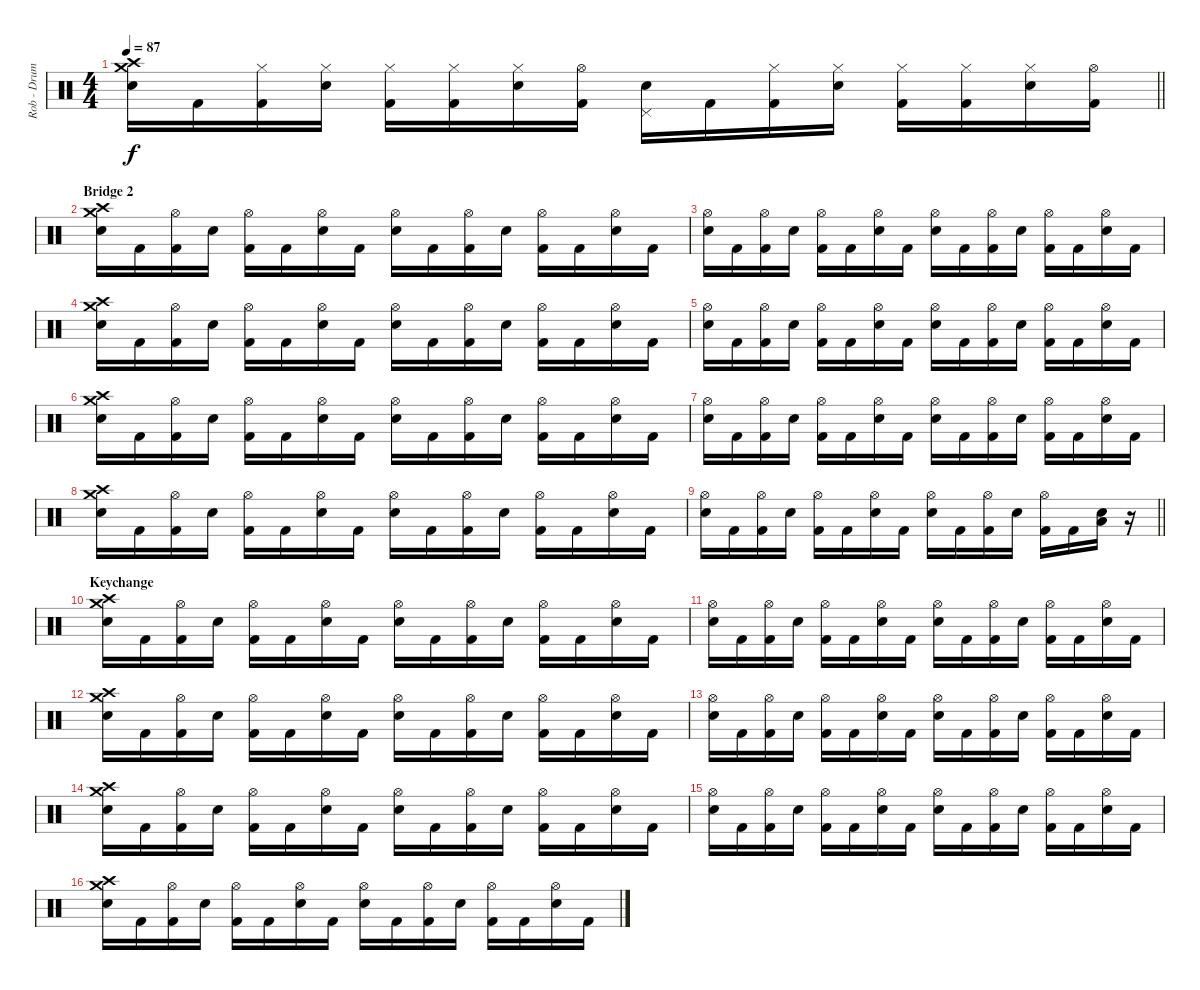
\track ("Rob - Drums" "Rob - Drum") {instrument percussion}
\staff {score}
\articulation defaults
\ts (4 4)
\tempo 87
\clef neutral
\barLineRight lightlight
\ks c
("Crash medium (hit)" "Crash high (hit)" "Electric Snare (hit)").16{dy f} "Kick (hit) 2".16 ("Hi-Hat (closed)" "Kick (hit) 2").16 ("Hi-Hat (closed)" "Electric Snare (hit)").16 ("Hi-Hat (closed)" "Kick (hit) 2").16 ("Hi-Hat (closed)" "Kick (hit) 2").16 ("Hi-Hat (closed)" "Electric Snare (hit)").16 ("Hi-Hat (open)" "Kick (hit) 2").16 ("Pedal Hi-Hat (hit)" "Electric Snare (hit)").16 "Kick (hit) 2".16 ("Hi-Hat (closed)" "Kick (hit) 2").16 ("Hi-Hat (closed)" "Electric Snare (hit)").16 ("Hi-Hat (closed)" "Kick (hit) 2").16 ("Hi-Hat (closed)" "Kick (hit) 2").16 ("Hi-Hat (closed)" "Electric Snare (hit)").16 ("Hi-Hat (open)" "Kick (hit) 2").16 |
\section ("" "Bridge 2")
("Crash medium (hit)" "Crash high (hit)" "Electric Snare (hit)").16 "Kick (hit) 2".16 ("Hi-Hat (open)" "Kick (hit) 2").16 "Electric Snare (hit)".16 ("Hi-Hat (open)" "Kick (hit) 2").16 "Kick (hit) 2".16 ("Hi-Hat (open)" "Electric Snare (hit)").16 "Kick (hit) 2".16 ("Hi-Hat (open)" "Electric Snare (hit)").16 "Kick (hit) 2".16 ("Hi-Hat (open)" "Kick (hit) 2").16 "Electric Snare (hit)".16 ("Hi-Hat (open)" "Kick (hit) 2").16 "Kick (hit) 2".16 ("Hi-Hat (open)" "Electric Snare (hit)").16 "Kick (hit) 2".16 |
("Hi-Hat (open)" "Electric Snare (hit)").16 "Kick (hit) 2".16 ("Hi-Hat (open)" "Kick (hit) 2").16 "Electric Snare (hit)".16 ("Hi-Hat (open)" "Kick (hit) 2").16 "Kick (hit) 2".16 ("Hi-Hat (open)" "Electric Snare (hit)").16 "Kick (hit) 2".16 ("Hi-Hat (open)" "Electric Snare (hit)").16 "Kick (hit) 2".16 ("Hi-Hat (open)" "Kick (hit) 2").16 "Electric Snare (hit)".16 ("Hi-Hat (open)" "Kick (hit) 2").16 "Kick (hit) 2".16 ("Hi-Hat (open)" "Electric Snare (hit)").16 "Kick (hit) 2".16 |
("Crash medium (hit)" "Crash high (hit)" "Electric Snare (hit)").16 "Kick (hit) 2".16 ("Hi-Hat (open)" "Kick (hit) 2").16 "Electric Snare (hit)".16 ("Hi-Hat (open)" "Kick (hit) 2").16 "Kick (hit) 2".16 ("Hi-Hat (open)" "Electric Snare (hit)").16 "Kick (hit) 2".16 ("Hi-Hat (open)" "Electric Snare (hit)").16 "Kick (hit) 2".16 ("Hi-Hat (open)" "Kick (hit) 2").16 "Electric Snare (hit)".16 ("Hi-Hat (open)" "Kick (hit) 2").16 "Kick (hit) 2".16 ("Hi-Hat (open)" "Electric Snare (hit)").16 "Kick (hit) 2".16 |
("Hi-Hat (open)" "Electric Snare (hit)").16 "Kick (hit) 2".16 ("Hi-Hat (open)" "Kick (hit) 2").16 "Electric Snare (hit)".16 ("Hi-Hat (open)" "Kick (hit) 2").16 "Kick (hit) 2".16 ("Hi-Hat (open)" "Electric Snare (hit)").16 "Kick (hit) 2".16 ("Hi-Hat (open)" "Electric Snare (hit)").16 "Kick (hit) 2".16 ("Hi-Hat (open)" "Kick (hit) 2").16 "Electric Snare (hit)".16 ("Hi-Hat (open)" "Kick (hit) 2").16 "Kick (hit) 2".16 ("Hi-Hat (open)" "Electric Snare (hit)").16 "Kick (hit) 2".16 |
("Crash medium (hit)" "Crash high (hit)" "Electric Snare (hit)").16 "Kick (hit) 2".16 ("Hi-Hat (open)" "Kick (hit) 2").16 "Electric Snare (hit)".16 ("Hi-Hat (open)" "Kick (hit) 2").16 "Kick (hit) 2".16 ("Hi-Hat (open)" "Electric Snare (hit)").16 "Kick (hit) 2".16 ("Hi-Hat (open)" "Electric Snare (hit)").16 "Kick (hit) 2".16 ("Hi-Hat (open)" "Kick (hit) 2").16 "Electric Snare (hit)".16 ("Hi-Hat (open)" "Kick (hit) 2").16 "Kick (hit) 2".16 ("Hi-Hat (open)" "Electric Snare (hit)").16 "Kick (hit) 2".16 |
("Hi-Hat (open)" "Electric Snare (hit)").16 "Kick (hit) 2".16 ("Hi-Hat (open)" "Kick (hit) 2").16 "Electric Snare (hit)".16 ("Hi-Hat (open)" "Kick (hit) 2").16 "Kick (hit) 2".16 ("Hi-Hat (open)" "Electric Snare (hit)").16 "Kick (hit) 2".16 ("Hi-Hat (open)" "Electric Snare (hit)").16 "Kick (hit) 2".16 ("Hi-Hat (open)" "Kick (hit) 2").16 "Electric Snare (hit)".16 ("Hi-Hat (open)" "Kick (hit) 2").16 "Kick (hit) 2".16 ("Hi-Hat (open)" "Electric Snare (hit)").16 "Kick (hit) 2".16 |
("Crash medium (hit)" "Crash high (hit)" "Electric Snare (hit)").16 "Kick (hit) 2".16 ("Hi-Hat (open)" "Kick (hit) 2").16 "Electric Snare (hit)".16 ("Hi-Hat (open)" "Kick (hit) 2").16 "Kick (hit) 2".16 ("Hi-Hat (open)" "Electric Snare (hit)").16 "Kick (hit) 2".16 ("Hi-Hat (open)" "Electric Snare (hit)").16 "Kick (hit) 2".16 ("Hi-Hat (open)" "Kick (hit) 2").16 "Electric Snare (hit)".16 ("Hi-Hat (open)" "Kick (hit) 2").16 "Kick (hit) 2".16 ("Hi-Hat (open)" "Electric Snare (hit)").16 "Kick (hit) 2".16 |
\barLineRight lightlight
("Hi-Hat (open)" "Electric Snare (hit)").16 "Kick (hit) 2".16 ("Hi-Hat (open)" "Kick (hit) 2").16 "Electric Snare (hit)".16 ("Hi-Hat (open)" "Kick (hit) 2").16 "Kick (hit) 2".16 ("Hi-Hat (open)" "Electric Snare (hit)").16 "Kick (hit) 2".16 ("Hi-Hat (open)" "Electric Snare (hit)").16 "Kick (hit) 2".16 ("Hi-Hat (open)" "Kick (hit) 2").16 "Electric Snare (hit)".16 ("Hi-Hat (open)" "Kick (hit) 2").16 "Kick (hit) 2".16 ("Low Tom (hit)" "Electric Snare (hit)").16 r.16 |
\section ("" "Keychange")
("Crash medium (hit)" "Crash high (hit)" "Electric Snare (hit)").16 "Kick (hit) 2".16 ("Hi-Hat (open)" "Kick (hit) 2").16 "Electric Snare (hit)".16 ("Hi-Hat (open)" "Kick (hit) 2").16 "Kick (hit) 2".16 ("Hi-Hat (open)" "Electric Snare (hit)").16 "Kick (hit) 2".16 ("Hi-Hat (open)" "Electric Snare (hit)").16 "Kick (hit) 2".16 ("Hi-Hat (open)" "Kick (hit) 2").16 "Electric Snare (hit)".16 ("Hi-Hat (open)" "Kick (hit) 2").16 "Kick (hit) 2".16 ("Hi-Hat (open)" "Electric Snare (hit)").16 "Kick (hit) 2".16 |
("Hi-Hat (open)" "Electric Snare (hit)").16 "Kick (hit) 2".16 ("Hi-Hat (open)" "Kick (hit) 2").16 "Electric Snare (hit)".16 ("Hi-Hat (open)" "Kick (hit) 2").16 "Kick (hit) 2".16 ("Hi-Hat (open)" "Electric Snare (hit)").16 "Kick (hit) 2".16 ("Hi-Hat (open)" "Electric Snare (hit)").16 "Kick (hit) 2".16 ("Hi-Hat (open)" "Kick (hit) 2").16 "Electric Snare (hit)".16 ("Hi-Hat (open)" "Kick (hit) 2").16 "Kick (hit) 2".16 ("Hi-Hat (open)" "Electric Snare (hit)").16 "Kick (hit) 2".16 |
("Crash medium (hit)" "Crash high (hit)" "Electric Snare (hit)").16 "Kick (hit) 2".16 ("Hi-Hat (open)" "Kick (hit) 2").16 "Electric Snare (hit)".16 ("Hi-Hat (open)" "Kick (hit) 2").16 "Kick (hit) 2".16 ("Hi-Hat (open)" "Electric Snare (hit)").16 "Kick (hit) 2".16 ("Hi-Hat (open)" "Electric Snare (hit)").16 "Kick (hit) 2".16 ("Hi-Hat (open)" "Kick (hit) 2").16 "Electric Snare (hit)".16 ("Hi-Hat (open)" "Kick (hit) 2").16 "Kick (hit) 2".16 ("Hi-Hat (open)" "Electric Snare (hit)").16 "Kick (hit) 2".16 |
("Hi-Hat (open)" "Electric Snare (hit)").16 "Kick (hit) 2".16 ("Hi-Hat (open)" "Kick (hit) 2").16 "Electric Snare (hit)".16 ("Hi-Hat (open)" "Kick (hit) 2").16 "Kick (hit) 2".16 ("Hi-Hat (open)" "Electric Snare (hit)").16 "Kick (hit) 2".16 ("Hi-Hat (open)" "Electric Snare (hit)").16 "Kick (hit) 2".16 ("Hi-Hat (open)" "Kick (hit) 2").16 "Electric Snare (hit)".16 ("Hi-Hat (open)" "Kick (hit) 2").16 "Kick (hit) 2".16 ("Hi-Hat (open)" "Electric Snare (hit)").16 "Kick (hit) 2".16 |
("Crash medium (hit)" "Crash high (hit)" "Electric Snare (hit)").16 "Kick (hit) 2".16 ("Hi-Hat (open)" "Kick (hit) 2").16 "Electric Snare (hit)".16 ("Hi-Hat (open)" "Kick (hit) 2").16 "Kick (hit) 2".16 ("Hi-Hat (open)" "Electric Snare (hit)").16 "Kick (hit) 2".16 ("Hi-Hat (open)" "Electric Snare (hit)").16 "Kick (hit) 2".16 ("Hi-Hat (open)" "Kick (hit) 2").16 "Electric Snare (hit)".16 ("Hi-Hat (open)" "Kick (hit) 2").16 "Kick (hit) 2".16 ("Hi-Hat (open)" "Electric Snare (hit)").16 "Kick (hit) 2".16 |
("Hi-Hat (open)" "Electric Snare (hit)").16 "Kick (hit) 2".16 ("Hi-Hat (open)" "Kick (hit) 2").16 "Electric Snare (hit)".16 ("Hi-Hat (open)" "Kick (hit) 2").16 "Kick (hit) 2".16 ("Hi-Hat (open)" "Electric Snare (hit)").16 "Kick (hit) 2".16 ("Hi-Hat (open)" "Electric Snare (hit)").16 "Kick (hit) 2".16 ("Hi-Hat (open)" "Kick (hit) 2").16 "Electric Snare (hit)".16 ("Hi-Hat (open)" "Kick (hit) 2").16 "Kick (hit) 2".16 ("Hi-Hat (open)" "Electric Snare (hit)").16 "Kick (hit) 2".16 |
("Crash medium (hit)" "Crash high (hit)" "Electric Snare (hit)").16 "Kick (hit) 2".16 ("Hi-Hat (open)" "Kick (hit) 2").16 "Electric Snare (hit)".16 ("Hi-Hat (open)" "Kick (hit) 2").16 "Kick (hit) 2".16 ("Hi-Hat (open)" "Electric Snare (hit)").16 "Kick (hit) 2".16 ("Hi-Hat (open)" "Electric Snare (hit)").16 "Kick (hit) 2".16 ("Hi-Hat (open)" "Kick (hit) 2").16 "Electric Snare (hit)".16 ("Hi-Hat (open)" "Kick (hit) 2").16 "Kick (hit) 2".16 ("Hi-Hat (open)" "Electric Snare (hit)").16 "Kick (hit) 2".16
